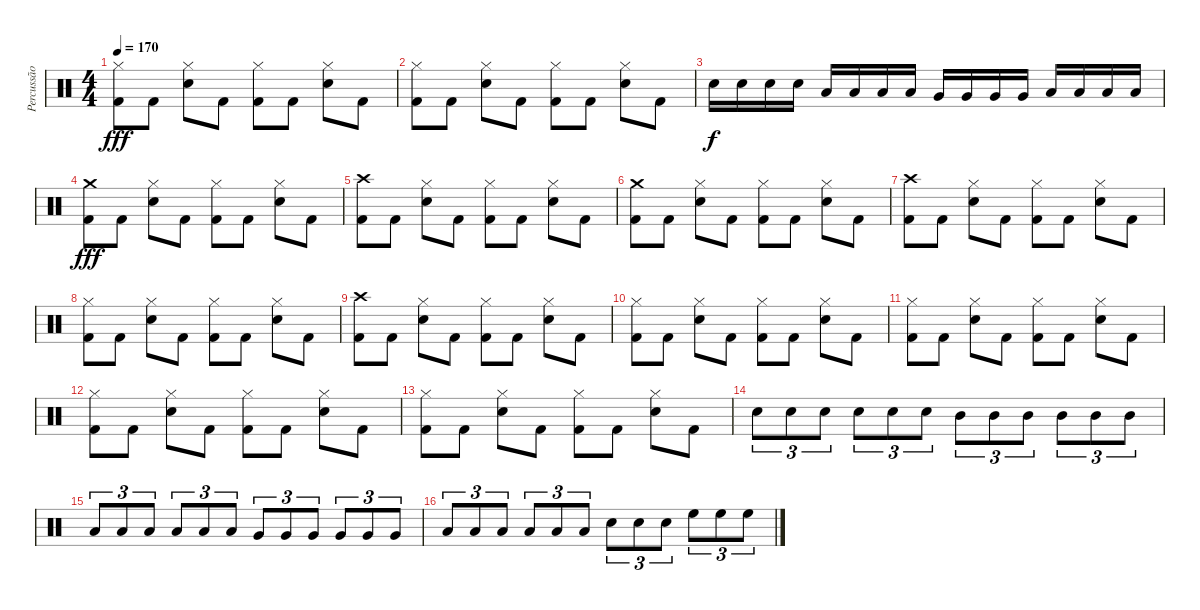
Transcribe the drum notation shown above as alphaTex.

\track ("Percussão" "Percussão") {instrument percussion}
\staff {score}
\articulation defaults
\ts (4 4)
\tempo 170
\clef neutral
\ks c
("Kick (hit) 2" "Hi-Hat (closed)").8{dy fff} "Kick (hit) 2".8 ("Snare (hit) 2" "Hi-Hat (closed)").8 "Kick (hit) 2".8 ("Kick (hit) 2" "Hi-Hat (closed)").8 "Kick (hit) 2".8 ("Snare (hit) 2" "Hi-Hat (closed)").8 "Kick (hit) 2".8 |
("Kick (hit) 2" "Hi-Hat (closed)").8 "Kick (hit) 2".8 ("Snare (hit) 2" "Hi-Hat (closed)").8 "Kick (hit) 2".8 ("Kick (hit) 2" "Hi-Hat (closed)").8 "Kick (hit) 2".8 ("Snare (hit) 2" "Hi-Hat (closed)").8 "Kick (hit) 2".8 |
"Snare (hit) 2".16{dy f} "Snare (hit) 2".16 "Snare (hit) 2".16 "Snare (hit) 2".16 "Low Tom (hit)".16 "Low Tom (hit)".16 "Low Tom (hit)".16 "Low Tom (hit)".16 "Very Low Tom (hit)".16 "Very Low Tom (hit)".16 "Very Low Tom (hit)".16 "Very Low Tom (hit)".16 "Low Floor Tom (hit)".16 "Low Floor Tom (hit)".16 "Low Floor Tom (hit)".16 "Low Floor Tom (hit)".16 |
("Kick (hit) 2" "Crash medium (hit)").8{dy fff} "Kick (hit) 2".8 ("Snare (hit) 2" "Hi-Hat (closed)").8 "Kick (hit) 2".8 ("Kick (hit) 2" "Hi-Hat (closed)").8 "Kick (hit) 2".8 ("Snare (hit) 2" "Hi-Hat (closed)").8 "Kick (hit) 2".8 |
("Kick (hit) 2" "Crash high (hit)").8 "Kick (hit) 2".8 ("Snare (hit) 2" "Hi-Hat (closed)").8 "Kick (hit) 2".8 ("Kick (hit) 2" "Hi-Hat (closed)").8 "Kick (hit) 2".8 ("Snare (hit) 2" "Hi-Hat (closed)").8 "Kick (hit) 2".8 |
("Kick (hit) 2" "Crash medium (hit)").8 "Kick (hit) 2".8 ("Snare (hit) 2" "Hi-Hat (closed)").8 "Kick (hit) 2".8 ("Kick (hit) 2" "Hi-Hat (closed)").8 "Kick (hit) 2".8 ("Snare (hit) 2" "Hi-Hat (closed)").8 "Kick (hit) 2".8 |
("Kick (hit) 2" "Crash high (hit)").8 "Kick (hit) 2".8 ("Snare (hit) 2" "Hi-Hat (closed)").8 "Kick (hit) 2".8 ("Kick (hit) 2" "Hi-Hat (closed)").8 "Kick (hit) 2".8 ("Snare (hit) 2" "Hi-Hat (closed)").8 "Kick (hit) 2".8 |
("Kick (hit) 2" "Hi-Hat (closed)").8 "Kick (hit) 2".8 ("Snare (hit) 2" "Hi-Hat (closed)").8 "Kick (hit) 2".8 ("Kick (hit) 2" "Hi-Hat (closed)").8 "Kick (hit) 2".8 ("Snare (hit) 2" "Hi-Hat (closed)").8 "Kick (hit) 2".8 |
("Kick (hit) 2" "Crash high (hit)").8 "Kick (hit) 2".8 ("Snare (hit) 2" "Hi-Hat (closed)").8 "Kick (hit) 2".8 ("Kick (hit) 2" "Hi-Hat (closed)").8 "Kick (hit) 2".8 ("Snare (hit) 2" "Hi-Hat (closed)").8 "Kick (hit) 2".8 |
("Kick (hit) 2" "Hi-Hat (closed)").8 "Kick (hit) 2".8 ("Snare (hit) 2" "Hi-Hat (closed)").8 "Kick (hit) 2".8 ("Kick (hit) 2" "Hi-Hat (closed)").8 "Kick (hit) 2".8 ("Snare (hit) 2" "Hi-Hat (closed)").8 "Kick (hit) 2".8 |
("Kick (hit) 2" "Hi-Hat (closed)").8 "Kick (hit) 2".8 ("Snare (hit) 2" "Hi-Hat (closed)").8 "Kick (hit) 2".8 ("Kick (hit) 2" "Hi-Hat (closed)").8 "Kick (hit) 2".8 ("Snare (hit) 2" "Hi-Hat (closed)").8 "Kick (hit) 2".8 |
("Kick (hit) 2" "Hi-Hat (closed)").8 "Kick (hit) 2".8 ("Snare (hit) 2" "Hi-Hat (closed)").8 "Kick (hit) 2".8 ("Kick (hit) 2" "Hi-Hat (closed)").8 "Kick (hit) 2".8 ("Snare (hit) 2" "Hi-Hat (closed)").8 "Kick (hit) 2".8 |
("Kick (hit) 2" "Hi-Hat (closed)").8 "Kick (hit) 2".8 ("Snare (hit) 2" "Hi-Hat (closed)").8 "Kick (hit) 2".8 ("Kick (hit) 2" "Hi-Hat (closed)").8 "Kick (hit) 2".8 ("Snare (hit) 2" "Hi-Hat (closed)").8 "Kick (hit) 2".8 |
"Snare (hit) 2".8{tu (3 2)} "Snare (hit) 2".8{tu (3 2)} "Snare (hit) 2".8{tu (3 2)} "Snare (hit) 2".8{tu (3 2)} "Snare (hit) 2".8{tu (3 2)} "Snare (hit) 2".8{tu (3 2)} "Mid Tom (hit)".8{tu (3 2)} "Mid Tom (hit)".8{tu (3 2)} "Mid Tom (hit)".8{tu (3 2)} "Mid Tom (hit)".8{tu (3 2)} "Mid Tom (hit)".8{tu (3 2)} "Mid Tom (hit)".8{tu (3 2)} |
"Low Tom (hit)".8{tu (3 2)} "Low Tom (hit)".8{tu (3 2)} "Low Tom (hit)".8{tu (3 2)} "Low Tom (hit)".8{tu (3 2)} "Low Tom (hit)".8{tu (3 2)} "Low Tom (hit)".8{tu (3 2)} "Very Low Tom (hit)".8{tu (3 2)} "Very Low Tom (hit)".8{tu (3 2)} "Very Low Tom (hit)".8{tu (3 2)} "Very Low Tom (hit)".8{tu (3 2)} "Very Low Tom (hit)".8{tu (3 2)} "Very Low Tom (hit)".8{tu (3 2)} |
"Low Floor Tom (hit)".8{tu (3 2)} "Low Floor Tom (hit)".8{tu (3 2)} "Low Floor Tom (hit)".8{tu (3 2)} "Low Floor Tom (hit)".8{tu (3 2)} "Low Floor Tom (hit)".8{tu (3 2)} "Low Floor Tom (hit)".8{tu (3 2)} "Snare (hit) 2".8{tu (3 2)} "Snare (hit) 2".8{tu (3 2)} "Snare (hit) 2".8{tu (3 2)} "High Floor Tom (hit)".8{tu (3 2)} "High Floor Tom (hit)".8{tu (3 2)} "High Floor Tom (hit)".8{tu (3 2)}
